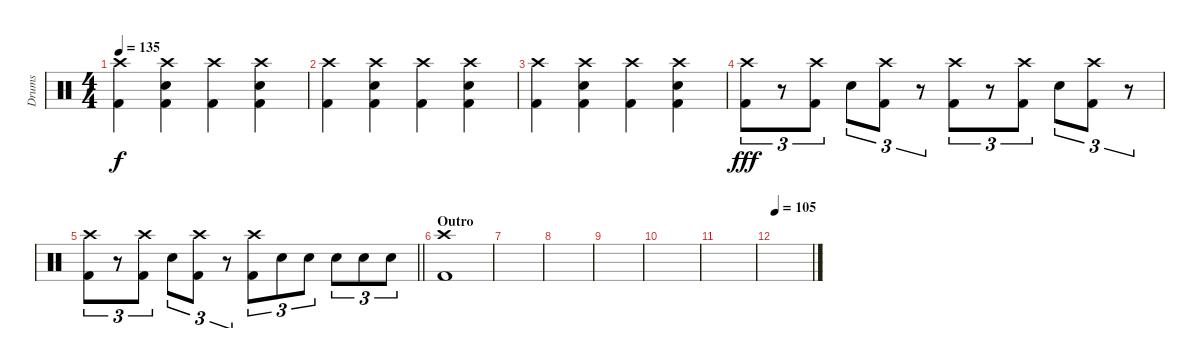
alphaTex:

\track ("Drums" "Drums") {instrument percussion}
\staff {score}
\articulation defaults
\ts (4 4)
\tempo 135
\clef neutral
\ks c
("Crash high (hit)" "Kick (hit) 2").4{dy f} ("Crash high (hit)" "Electric Snare (hit)" "Kick (hit) 2").4 ("Crash high (hit)" "Kick (hit) 2").4 ("Crash high (hit)" "Electric Snare (hit)" "Kick (hit) 2").4 |
("Crash high (hit)" "Kick (hit) 2").4 ("Crash high (hit)" "Electric Snare (hit)" "Kick (hit) 2").4 ("Crash high (hit)" "Kick (hit) 2").4 ("Crash high (hit)" "Electric Snare (hit)" "Kick (hit) 2").4 |
("Crash high (hit)" "Kick (hit) 2").4 ("Crash high (hit)" "Electric Snare (hit)" "Kick (hit) 2").4 ("Crash high (hit)" "Kick (hit) 2").4 ("Crash high (hit)" "Electric Snare (hit)" "Kick (hit) 2").4 |
("Crash high (hit)" "Kick (hit) 2").8{tu (3 2) dy fff} r.8{tu (3 2)} ("Crash high (hit)" "Kick (hit) 2").8{tu (3 2)} "Electric Snare (hit)".8{tu (3 2)} ("Crash high (hit)" "Kick (hit) 2").8{tu (3 2)} r.8{tu (3 2)} ("Crash high (hit)" "Kick (hit) 2").8{tu (3 2)} r.8{tu (3 2)} ("Crash high (hit)" "Kick (hit) 2").8{tu (3 2)} "Electric Snare (hit)".8{tu (3 2)} ("Crash high (hit)" "Kick (hit) 2").8{tu (3 2)} r.8{tu (3 2)} |
\barLineRight lightlight
("Crash high (hit)" "Kick (hit) 2").8{tu (3 2)} r.8{tu (3 2)} ("Crash high (hit)" "Kick (hit) 2").8{tu (3 2)} "Electric Snare (hit)".8{tu (3 2)} ("Crash high (hit)" "Kick (hit) 2").8{tu (3 2)} r.8{tu (3 2)} ("Crash high (hit)" "Kick (hit) 2").8{tu (3 2)} "Electric Snare (hit)".8{tu (3 2)} "Electric Snare (hit)".8{tu (3 2)} "Electric Snare (hit)".8{tu (3 2)} "Electric Snare (hit)".8{tu (3 2)} "Electric Snare (hit)".8{tu (3 2)} |
\section ("" "Outro")
("Crash high (hit)" "Kick (hit) 2").1 |
|
|
|
|
|
\tempo 110
\tempo 105
